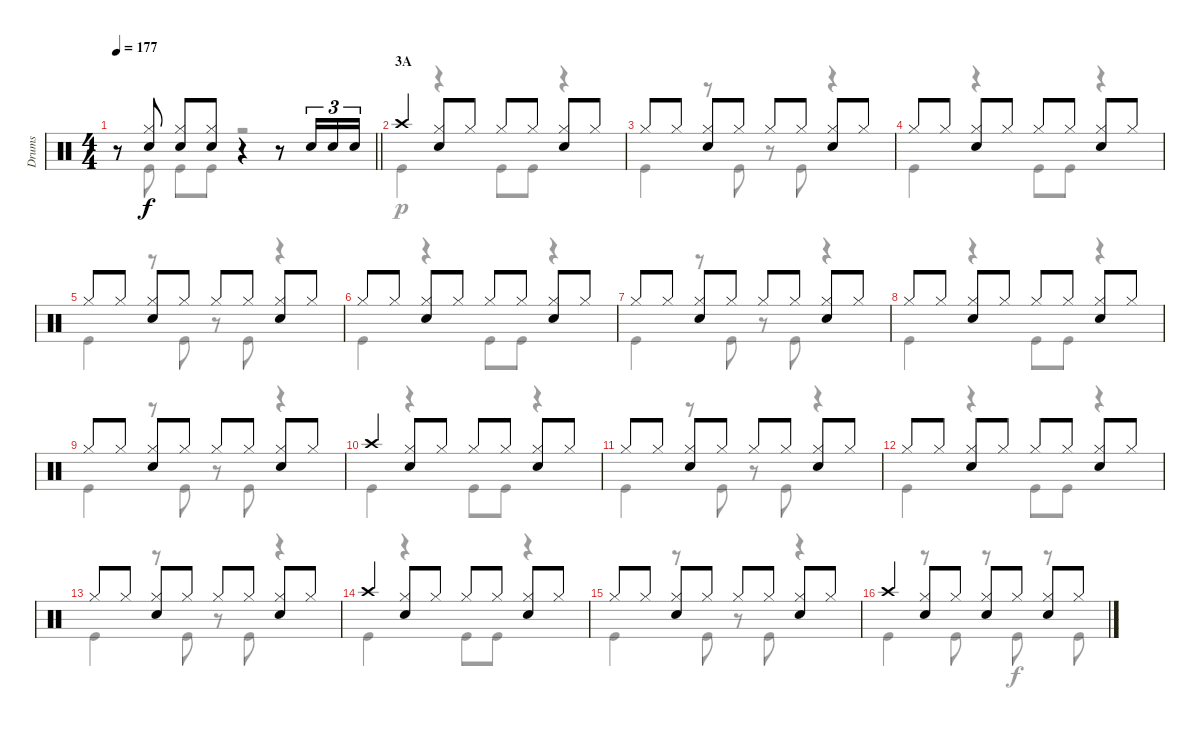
\track ("Drums" "Drums") {instrument percussion}
\staff {score}
\articulation defaults
\voice
\ts (4 4)
\tempo 177
\clef neutral
\barLineRight lightlight
\ks c
r.8{dy f} ("Hi-Hat (closed)" "Snare (hit) 2").8 ("Hi-Hat (closed)" "Snare (hit) 2").8 ("Hi-Hat (closed)" "Snare (hit) 2").8 r.4 r.8 "Snare (hit) 2".16{tu (3 2)} "Snare (hit) 2".16{tu (3 2)} "Snare (hit) 2".16{tu (3 2)} |
\section ("" "3A")
"Crash high (hit)".4 ("Hi-Hat (closed)" "Snare (hit) 2").8 "Hi-Hat (closed)".8 "Hi-Hat (closed)".8 "Hi-Hat (closed)".8 ("Hi-Hat (closed)" "Snare (hit) 2").8 "Hi-Hat (closed)".8 |
"Hi-Hat (closed)".8 "Hi-Hat (closed)".8 ("Hi-Hat (closed)" "Snare (hit) 2").8 "Hi-Hat (closed)".8 "Hi-Hat (closed)".8 "Hi-Hat (closed)".8 ("Hi-Hat (closed)" "Snare (hit) 2").8 "Hi-Hat (closed)".8 |
"Hi-Hat (closed)".8 "Hi-Hat (closed)".8 ("Hi-Hat (closed)" "Snare (hit) 2").8 "Hi-Hat (closed)".8 "Hi-Hat (closed)".8 "Hi-Hat (closed)".8 ("Hi-Hat (closed)" "Snare (hit) 2").8 "Hi-Hat (closed)".8 |
"Hi-Hat (closed)".8 "Hi-Hat (closed)".8 ("Hi-Hat (closed)" "Snare (hit) 2").8 "Hi-Hat (closed)".8 "Hi-Hat (closed)".8 "Hi-Hat (closed)".8 ("Hi-Hat (closed)" "Snare (hit) 2").8 "Hi-Hat (closed)".8 |
"Hi-Hat (closed)".8 "Hi-Hat (closed)".8 ("Hi-Hat (closed)" "Snare (hit) 2").8 "Hi-Hat (closed)".8 "Hi-Hat (closed)".8 "Hi-Hat (closed)".8 ("Hi-Hat (closed)" "Snare (hit) 2").8 "Hi-Hat (closed)".8 |
"Hi-Hat (closed)".8 "Hi-Hat (closed)".8 ("Hi-Hat (closed)" "Snare (hit) 2").8 "Hi-Hat (closed)".8 "Hi-Hat (closed)".8 "Hi-Hat (closed)".8 ("Hi-Hat (closed)" "Snare (hit) 2").8 "Hi-Hat (closed)".8 |
"Hi-Hat (closed)".8 "Hi-Hat (closed)".8 ("Hi-Hat (closed)" "Snare (hit) 2").8 "Hi-Hat (closed)".8 "Hi-Hat (closed)".8 "Hi-Hat (closed)".8 ("Hi-Hat (closed)" "Snare (hit) 2").8 "Hi-Hat (closed)".8 |
"Hi-Hat (closed)".8 "Hi-Hat (closed)".8 ("Hi-Hat (closed)" "Snare (hit) 2").8 "Hi-Hat (closed)".8 "Hi-Hat (closed)".8 "Hi-Hat (closed)".8 ("Hi-Hat (closed)" "Snare (hit) 2").8 "Hi-Hat (closed)".8 |
"Crash high (hit)".4 ("Hi-Hat (closed)" "Snare (hit) 2").8 "Hi-Hat (closed)".8 "Hi-Hat (closed)".8 "Hi-Hat (closed)".8 ("Hi-Hat (closed)" "Snare (hit) 2").8 "Hi-Hat (closed)".8 |
"Hi-Hat (closed)".8 "Hi-Hat (closed)".8 ("Hi-Hat (closed)" "Snare (hit) 2").8 "Hi-Hat (closed)".8 "Hi-Hat (closed)".8 "Hi-Hat (closed)".8 ("Hi-Hat (closed)" "Snare (hit) 2").8 "Hi-Hat (closed)".8 |
"Hi-Hat (closed)".8 "Hi-Hat (closed)".8 ("Hi-Hat (closed)" "Snare (hit) 2").8 "Hi-Hat (closed)".8 "Hi-Hat (closed)".8 "Hi-Hat (closed)".8 ("Hi-Hat (closed)" "Snare (hit) 2").8 "Hi-Hat (closed)".8 |
"Hi-Hat (closed)".8 "Hi-Hat (closed)".8 ("Hi-Hat (closed)" "Snare (hit) 2").8 "Hi-Hat (closed)".8 "Hi-Hat (closed)".8 "Hi-Hat (closed)".8 ("Hi-Hat (closed)" "Snare (hit) 2").8 "Hi-Hat (closed)".8 |
"Crash high (hit)".4 ("Hi-Hat (closed)" "Snare (hit) 2").8 "Hi-Hat (closed)".8 "Hi-Hat (closed)".8 "Hi-Hat (closed)".8 ("Hi-Hat (closed)" "Snare (hit) 2").8 "Hi-Hat (closed)".8 |
"Hi-Hat (closed)".8 "Hi-Hat (closed)".8 ("Hi-Hat (closed)" "Snare (hit) 2").8 "Hi-Hat (closed)".8 "Hi-Hat (closed)".8 "Hi-Hat (closed)".8 ("Hi-Hat (closed)" "Snare (hit) 2").8 "Hi-Hat (closed)".8 |
"Crash high (hit)".4 ("Hi-Hat (closed)" "Snare (hit) 2").8 "Hi-Hat (closed)".8 ("Hi-Hat (closed)" "Snare (hit) 2").8 "Hi-Hat (closed)".8 ("Hi-Hat (closed)" "Snare (hit) 2").8 "Hi-Hat (closed)".8
\voice
\clef neutral
\ottava regular
\simile none
\barLineRight lightlight
\ks c
r.8{dy f} "Kick (hit)".8 "Kick (hit)".8 "Kick (hit)".8 r.2 |
"Kick (hit)".4{dy p} r.4 "Kick (hit)".8 "Kick (hit)".8 r.4 |
"Kick (hit)".4 r.8 "Kick (hit)".8 r.8 "Kick (hit)".8 r.4 |
"Kick (hit)".4 r.4 "Kick (hit)".8 "Kick (hit)".8 r.4 |
"Kick (hit)".4 r.8 "Kick (hit)".8 r.8 "Kick (hit)".8 r.4 |
"Kick (hit)".4 r.4 "Kick (hit)".8 "Kick (hit)".8 r.4 |
"Kick (hit)".4 r.8 "Kick (hit)".8 r.8 "Kick (hit)".8 r.4 |
"Kick (hit)".4 r.4 "Kick (hit)".8 "Kick (hit)".8 r.4 |
"Kick (hit)".4 r.8 "Kick (hit)".8 r.8 "Kick (hit)".8 r.4 |
"Kick (hit)".4 r.4 "Kick (hit)".8 "Kick (hit)".8 r.4 |
"Kick (hit)".4 r.8 "Kick (hit)".8 r.8 "Kick (hit)".8 r.4 |
"Kick (hit)".4 r.4 "Kick (hit)".8 "Kick (hit)".8 r.4 |
"Kick (hit)".4 r.8 "Kick (hit)".8 r.8 "Kick (hit)".8 r.4 |
"Kick (hit)".4 r.4 "Kick (hit)".8 "Kick (hit)".8 r.4 |
"Kick (hit)".4 r.8 "Kick (hit)".8 r.8 "Kick (hit)".8 r.4 |
"Kick (hit)".4 r.8 "Kick (hit)".8 r.8 "Kick (hit)".8{dy f} r.8 "Kick (hit)".8
